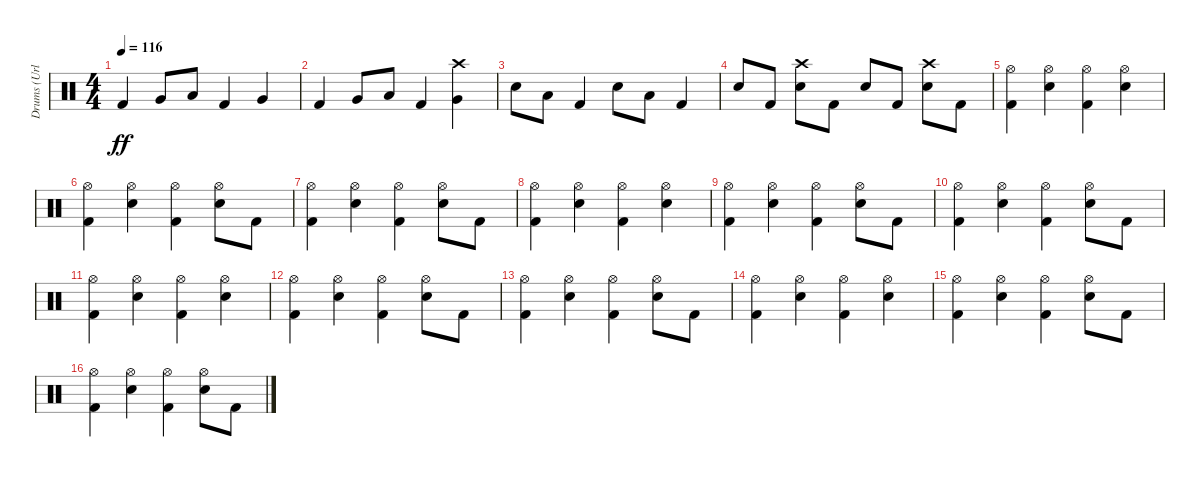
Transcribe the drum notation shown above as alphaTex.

\track ("Drums (Urlich)" "Drums (Url") {instrument percussion}
\staff {score}
\articulation defaults
\ts (4 4)
\tempo 116
\clef neutral
\ks c "Kick (hit) 2".4{dy ff} "Very Low Tom (hit)".8 "Low Floor Tom (hit)".8 "Kick (hit) 2".4 "Very Low Tom (hit)".4
|
"Kick (hit) 2".4 "Very Low Tom (hit)".8 "Low Floor Tom (hit)".8 "Kick (hit) 2".4 ("Very Low Tom (hit)" "Crash high (hit)").4 |
"Snare (hit) 2".8 "Low Floor Tom (hit)".8 "Kick (hit) 2".4 "Snare (hit) 2".8 "Low Floor Tom (hit)".8 "Kick (hit) 2".4 |
"Snare (hit) 2".8 "Kick (hit) 2".8 ("Snare (hit) 2" "Crash high (hit)").8 "Kick (hit) 2".8 "Snare (hit) 2".8 "Kick (hit) 2".8 ("Snare (hit) 2" "Crash high (hit)").8 "Kick (hit) 2".8 |
("Kick (hit) 2" "Hi-Hat (open)").4 ("Snare (hit) 2" "Hi-Hat (open)").4 ("Kick (hit) 2" "Hi-Hat (open)").4 ("Snare (hit) 2" "Hi-Hat (open)").4 |
("Kick (hit) 2" "Hi-Hat (open)").4 ("Snare (hit) 2" "Hi-Hat (open)").4 ("Kick (hit) 2" "Hi-Hat (open)").4 ("Snare (hit) 2" "Hi-Hat (open)").8 "Kick (hit) 2".8 |
("Kick (hit) 2" "Hi-Hat (open)").4 ("Snare (hit) 2" "Hi-Hat (open)").4 ("Kick (hit) 2" "Hi-Hat (open)").4 ("Snare (hit) 2" "Hi-Hat (open)").8 "Kick (hit) 2".8 |
("Kick (hit) 2" "Hi-Hat (open)").4 ("Snare (hit) 2" "Hi-Hat (open)").4 ("Kick (hit) 2" "Hi-Hat (open)").4 ("Snare (hit) 2" "Hi-Hat (open)").4 |
("Kick (hit) 2" "Hi-Hat (open)").4 ("Snare (hit) 2" "Hi-Hat (open)").4 ("Kick (hit) 2" "Hi-Hat (open)").4 ("Snare (hit) 2" "Hi-Hat (open)").8 "Kick (hit) 2".8 |
("Kick (hit) 2" "Hi-Hat (open)").4 ("Snare (hit) 2" "Hi-Hat (open)").4 ("Kick (hit) 2" "Hi-Hat (open)").4 ("Snare (hit) 2" "Hi-Hat (open)").8 "Kick (hit) 2".8 |
("Kick (hit) 2" "Hi-Hat (open)").4 ("Snare (hit) 2" "Hi-Hat (open)").4 ("Kick (hit) 2" "Hi-Hat (open)").4 ("Snare (hit) 2" "Hi-Hat (open)").4 |
("Kick (hit) 2" "Hi-Hat (open)").4 ("Snare (hit) 2" "Hi-Hat (open)").4 ("Kick (hit) 2" "Hi-Hat (open)").4 ("Snare (hit) 2" "Hi-Hat (open)").8 "Kick (hit) 2".8 |
("Kick (hit) 2" "Hi-Hat (open)").4 ("Snare (hit) 2" "Hi-Hat (open)").4 ("Kick (hit) 2" "Hi-Hat (open)").4 ("Snare (hit) 2" "Hi-Hat (open)").8 "Kick (hit) 2".8 |
("Kick (hit) 2" "Hi-Hat (open)").4 ("Snare (hit) 2" "Hi-Hat (open)").4 ("Kick (hit) 2" "Hi-Hat (open)").4 ("Snare (hit) 2" "Hi-Hat (open)").4 |
("Kick (hit) 2" "Hi-Hat (open)").4 ("Snare (hit) 2" "Hi-Hat (open)").4 ("Kick (hit) 2" "Hi-Hat (open)").4 ("Snare (hit) 2" "Hi-Hat (open)").8 "Kick (hit) 2".8 |
("Kick (hit) 2" "Hi-Hat (open)").4 ("Snare (hit) 2" "Hi-Hat (open)").4 ("Kick (hit) 2" "Hi-Hat (open)").4 ("Snare (hit) 2" "Hi-Hat (open)").8 "Kick (hit) 2".8
